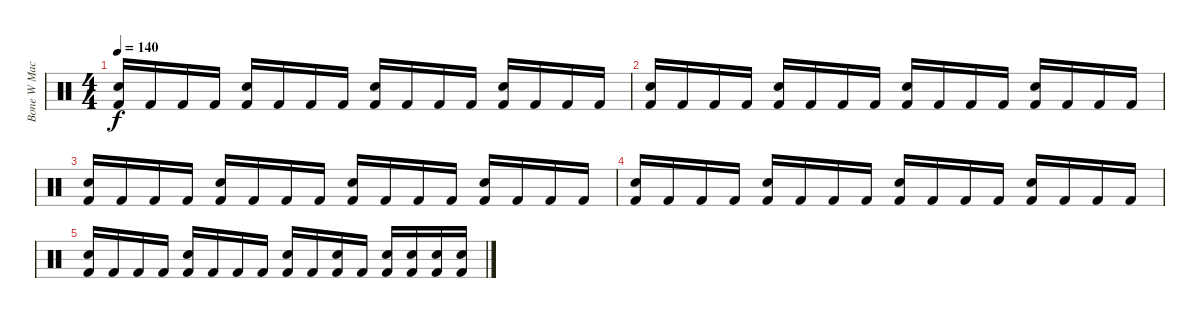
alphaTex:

\track ("Bone W Machine" "Bone W Mac") {instrument percussion}
\staff {score}
\articulation defaults
\ts (4 4)
\tempo 140
\clef neutral
\ks c
("Electric Snare (hit)" "Kick (hit) 2").16{dy f} "Kick (hit) 2".16 "Kick (hit) 2".16 "Kick (hit) 2".16 ("Electric Snare (hit)" "Kick (hit) 2").16 "Kick (hit) 2".16 "Kick (hit) 2".16 "Kick (hit) 2".16 ("Electric Snare (hit)" "Kick (hit) 2").16 "Kick (hit) 2".16 "Kick (hit) 2".16 "Kick (hit) 2".16 ("Electric Snare (hit)" "Kick (hit) 2").16 "Kick (hit) 2".16 "Kick (hit) 2".16 "Kick (hit) 2".16 |
("Electric Snare (hit)" "Kick (hit) 2").16 "Kick (hit) 2".16 "Kick (hit) 2".16 "Kick (hit) 2".16 ("Electric Snare (hit)" "Kick (hit) 2").16 "Kick (hit) 2".16 "Kick (hit) 2".16 "Kick (hit) 2".16 ("Electric Snare (hit)" "Kick (hit) 2").16 "Kick (hit) 2".16 "Kick (hit) 2".16 "Kick (hit) 2".16 ("Electric Snare (hit)" "Kick (hit) 2").16 "Kick (hit) 2".16 "Kick (hit) 2".16 "Kick (hit) 2".16 |
("Electric Snare (hit)" "Kick (hit) 2").16 "Kick (hit) 2".16 "Kick (hit) 2".16 "Kick (hit) 2".16 ("Electric Snare (hit)" "Kick (hit) 2").16 "Kick (hit) 2".16 "Kick (hit) 2".16 "Kick (hit) 2".16 ("Electric Snare (hit)" "Kick (hit) 2").16 "Kick (hit) 2".16 "Kick (hit) 2".16 "Kick (hit) 2".16 ("Electric Snare (hit)" "Kick (hit) 2").16 "Kick (hit) 2".16 "Kick (hit) 2".16 "Kick (hit) 2".16 |
("Electric Snare (hit)" "Kick (hit) 2").16 "Kick (hit) 2".16 "Kick (hit) 2".16 "Kick (hit) 2".16 ("Electric Snare (hit)" "Kick (hit) 2").16 "Kick (hit) 2".16 "Kick (hit) 2".16 "Kick (hit) 2".16 ("Electric Snare (hit)" "Kick (hit) 2").16 "Kick (hit) 2".16 "Kick (hit) 2".16 "Kick (hit) 2".16 ("Electric Snare (hit)" "Kick (hit) 2").16 "Kick (hit) 2".16 "Kick (hit) 2".16 "Kick (hit) 2".16 |
("Electric Snare (hit)" "Kick (hit) 2").16 "Kick (hit) 2".16 "Kick (hit) 2".16 "Kick (hit) 2".16 ("Electric Snare (hit)" "Kick (hit) 2").16 "Kick (hit) 2".16 "Kick (hit) 2".16 "Kick (hit) 2".16 ("Electric Snare (hit)" "Kick (hit) 2").16 "Kick (hit) 2".16 ("Electric Snare (hit)" "Kick (hit) 2").16 "Kick (hit) 2".16 ("Electric Snare (hit)" "Kick (hit) 2").16 ("Electric Snare (hit)" "Kick (hit) 2").16 ("Electric Snare (hit)" "Kick (hit) 2").16 ("Electric Snare (hit)" "Kick (hit) 2").16
